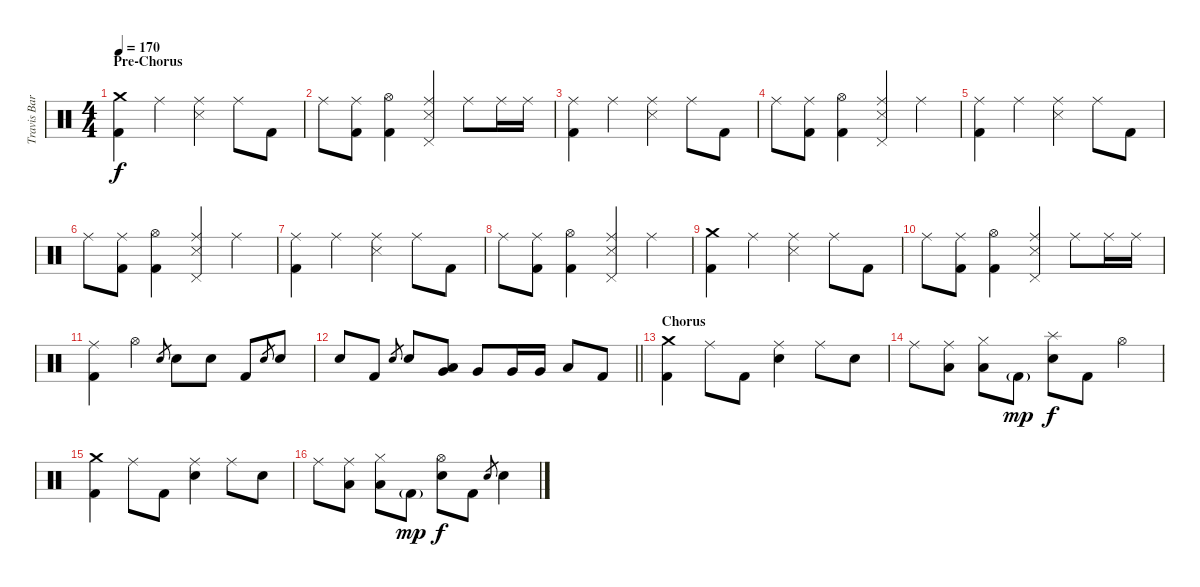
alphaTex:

\track ("Travis Barker - Drums" "Travis Bar") {instrument percussion}
\staff {score}
\articulation defaults
\ts (4 4)
\section ("" "Pre-Chorus")
\tempo 170
\clef neutral
\ks c
("Crash medium (hit)" "Kick (hit) 2").4{dy f} "Ride (middle)".4 ("Ride (middle)" "Snare (side stick) 3").4 "Ride (middle)".8 "Kick (hit) 2".8 |
"Ride (middle)".8 ("Ride (middle)" "Kick (hit) 2").8 ("Hi-Hat (open)" "Kick (hit) 2").4 ("Ride (middle)" "Pedal Hi-Hat (hit)" "Snare (side stick) 3").4 "Ride (middle)".8 "Ride (middle)".16 "Ride (middle)".16 |
("Ride (middle)" "Kick (hit) 2").4 "Ride (middle)".4 ("Ride (middle)" "Snare (side stick) 3").4 "Ride (middle)".8 "Kick (hit) 2".8 |
"Ride (middle)".8 ("Ride (middle)" "Kick (hit) 2").8 ("Hi-Hat (open)" "Kick (hit) 2").4 ("Ride (middle)" "Pedal Hi-Hat (hit)" "Snare (side stick) 3").4 "Ride (middle)".4 |
("Ride (middle)" "Kick (hit) 2").4 "Ride (middle)".4 ("Ride (middle)" "Snare (side stick) 3").4 "Ride (middle)".8 "Kick (hit) 2".8 |
"Ride (middle)".8 ("Ride (middle)" "Kick (hit) 2").8 ("Hi-Hat (open)" "Kick (hit) 2").4 ("Ride (middle)" "Pedal Hi-Hat (hit)" "Snare (side stick) 3").4 "Ride (middle)".4 |
("Ride (middle)" "Kick (hit) 2").4 "Ride (middle)".4 ("Ride (middle)" "Snare (side stick) 3").4 "Ride (middle)".8 "Kick (hit) 2".8 |
"Ride (middle)".8 ("Ride (middle)" "Kick (hit) 2").8 ("Hi-Hat (open)" "Kick (hit) 2").4 ("Ride (middle)" "Pedal Hi-Hat (hit)" "Snare (side stick) 3").4 "Ride (middle)".4 |
("Crash medium (hit)" "Kick (hit) 2").4 "Ride (middle)".4 ("Ride (middle)" "Snare (side stick) 3").4 "Ride (middle)".8 "Kick (hit) 2".8 |
"Ride (middle)".8 ("Ride (middle)" "Kick (hit) 2").8 ("Hi-Hat (open)" "Kick (hit) 2").4 ("Ride (middle)" "Pedal Hi-Hat (hit)" "Snare (side stick) 3").4 "Ride (middle)".8 "Ride (middle)".16 "Ride (middle)".16 |
("Ride (middle)" "Kick (hit) 2").4 "Hi-Hat (open)".4 "Electric Snare (hit)".8{gr} "Electric Snare (hit)".8 "Electric Snare (hit)".8 "Kick (hit) 2".8 "Electric Snare (hit)".8{gr} "Electric Snare (hit)".8 |
\barLineRight lightlight "Electric Snare (hit)".8 "Kick (hit) 2".8 "Electric Snare (hit)".8{gr} "Electric Snare (hit)".8
("Low Tom (hit)" "Very Low Tom (hit)").8 "Very Low Tom (hit)".8 "Very Low Tom (hit)".16 "Very Low Tom (hit)".16 "Low Floor Tom (hit)".8 "Kick (hit) 2".8 |
\section ("" "Chorus")
("Crash medium (hit)" "Kick (hit) 2").4 "Ride (middle)".8 "Kick (hit) 2".8 ("Ride (middle)" "Electric Snare (hit)").4 "Ride (middle)".8 "Electric Snare (hit)".8 |
"Ride (middle)".8 ("Ride (middle)" "Low Tom (hit)").8 ("Hi-Hat (closed)" "Low Tom (hit)").8 "Kick (hit) 2"{g}.8{dy mp} ("Splash (hit)" "Electric Snare (hit)").8{dy f} "Kick (hit) 2".8 "Hi-Hat (open)".4 |
("Crash medium (hit)" "Kick (hit) 2").4 "Ride (middle)".8 "Kick (hit) 2".8 ("Ride (middle)" "Electric Snare (hit)").4 "Ride (middle)".8 "Electric Snare (hit)".8 |
"Ride (middle)".8 ("Ride (middle)" "Low Tom (hit)").8 ("Hi-Hat (closed)" "Low Tom (hit)").8 "Kick (hit) 2"{g}.8{dy mp} ("Hi-Hat (open)" "Electric Snare (hit)").8{dy f} "Kick (hit) 2".8 "Electric Snare (hit)".8{gr} "Electric Snare (hit)".4
